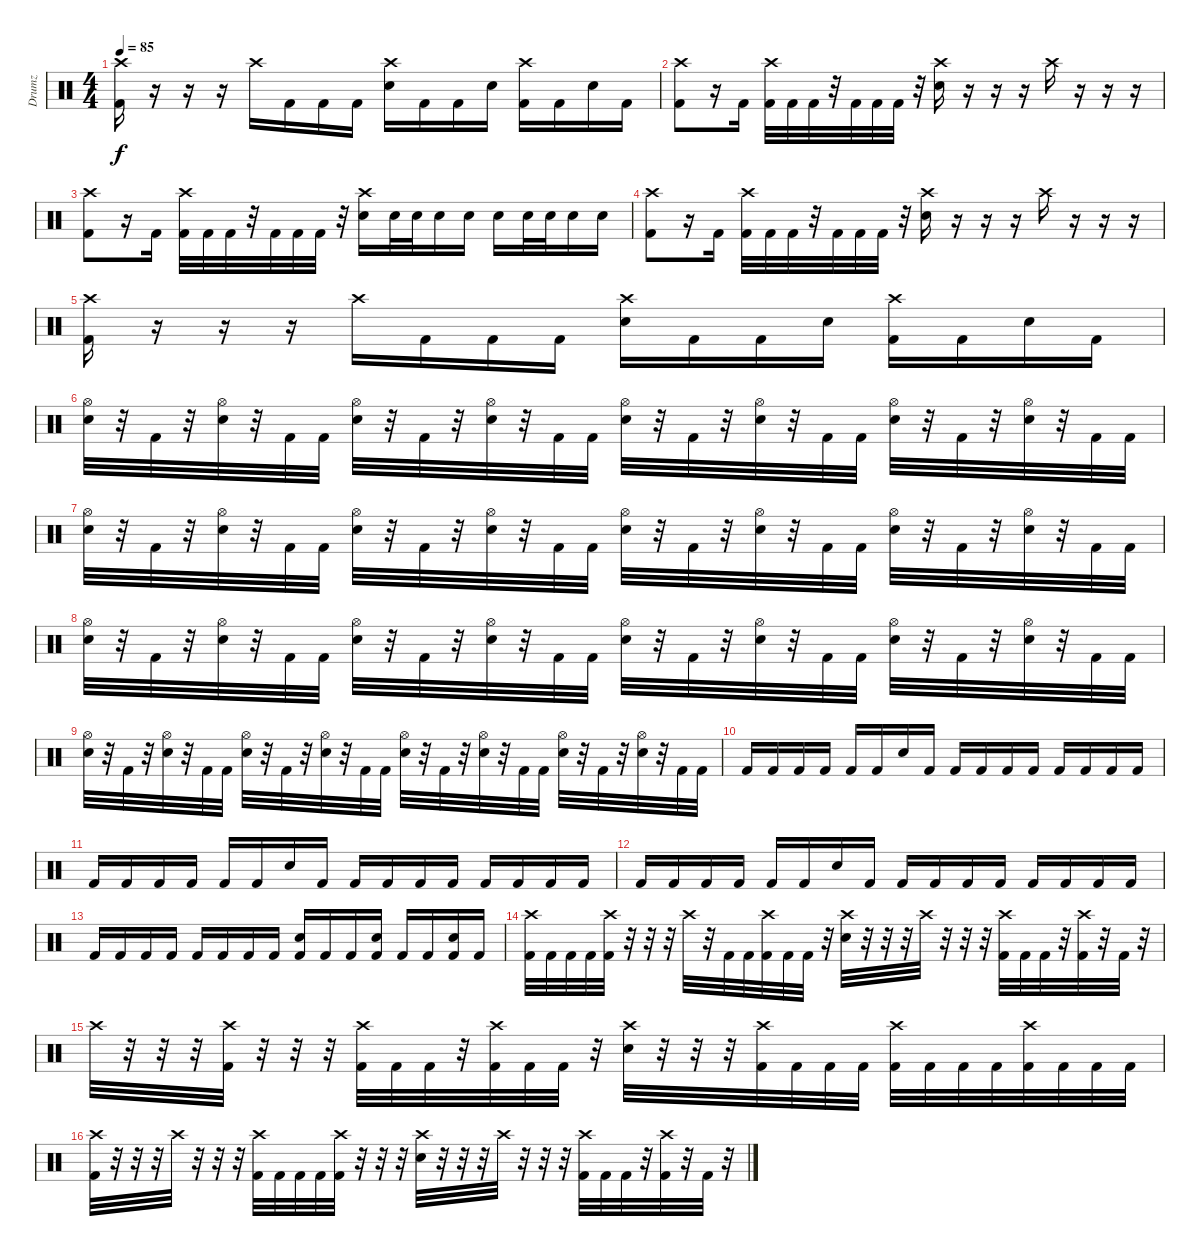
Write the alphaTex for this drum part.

\track ("Drumz" "Drumz") {instrument percussion}
\staff {score}
\articulation defaults
\ts (4 4)
\tempo 85
\clef neutral
\ks c
("Crash high (hit)" "Kick (hit) 2").16{dy f} r.16 r.16 r.16 "Crash high (hit)".16 "Kick (hit) 2".16 "Kick (hit) 2".16 "Kick (hit) 2".16 ("Crash high (hit)" "Snare (hit) 2").16 "Kick (hit) 2".16 "Kick (hit) 2".16 "Snare (hit) 2".16 ("Crash high (hit)" "Kick (hit) 2").16 "Kick (hit) 2".16 "Snare (hit) 2".16 "Kick (hit) 2".16 |
("Crash high (hit)" "Kick (hit) 2").8 r.16 "Kick (hit) 2".16 ("Crash high (hit)" "Kick (hit) 2").32 "Kick (hit) 2".32 "Kick (hit) 2".32 r.32 "Kick (hit) 2".32 "Kick (hit) 2".32 "Kick (hit) 2".32 r.32 ("Crash high (hit)" "Snare (hit) 2").16 r.16 r.16 r.16 "Crash high (hit)".16 r.16 r.16 r.16 |
("Crash high (hit)" "Kick (hit) 2").8 r.16 "Kick (hit) 2".16 ("Crash high (hit)" "Kick (hit) 2").32 "Kick (hit) 2".32 "Kick (hit) 2".32 r.32 "Kick (hit) 2".32 "Kick (hit) 2".32 "Kick (hit) 2".32 r.32 ("Crash high (hit)" "Snare (hit) 2").16 "Snare (hit) 2".32 "Snare (hit) 2".32 "Snare (hit) 2".16 "Snare (hit) 2".16 "Snare (hit) 2".16 "Snare (hit) 2".32 "Snare (hit) 2".32 "Snare (hit) 2".16 "Snare (hit) 2".16 |
("Crash high (hit)" "Kick (hit) 2").8 r.16 "Kick (hit) 2".16 ("Crash high (hit)" "Kick (hit) 2").32 "Kick (hit) 2".32 "Kick (hit) 2".32 r.32 "Kick (hit) 2".32 "Kick (hit) 2".32 "Kick (hit) 2".32 r.32 ("Crash high (hit)" "Snare (hit) 2").16 r.16 r.16 r.16 "Crash high (hit)".16 r.16 r.16 r.16 |
("Crash high (hit)" "Kick (hit) 2").16 r.16 r.16 r.16 "Crash high (hit)".16 "Kick (hit) 2".16 "Kick (hit) 2".16 "Kick (hit) 2".16 ("Crash high (hit)" "Snare (hit) 2").16 "Kick (hit) 2".16 "Kick (hit) 2".16 "Snare (hit) 2".16 ("Crash high (hit)" "Kick (hit) 2").16 "Kick (hit) 2".16 "Snare (hit) 2".16 "Kick (hit) 2".16 |
("Hi-Hat (open)" "Snare (hit) 2").32 r.32 "Kick (hit) 2".32 r.32 ("Hi-Hat (open)" "Snare (hit) 2").32 r.32 "Kick (hit) 2".32 "Kick (hit) 2".32 ("Hi-Hat (open)" "Snare (hit) 2").32 r.32 "Kick (hit) 2".32 r.32 ("Hi-Hat (open)" "Snare (hit) 2").32 r.32 "Kick (hit) 2".32 "Kick (hit) 2".32 ("Hi-Hat (open)" "Snare (hit) 2").32 r.32 "Kick (hit) 2".32 r.32 ("Hi-Hat (open)" "Snare (hit) 2").32 r.32 "Kick (hit) 2".32 "Kick (hit) 2".32 ("Hi-Hat (open)" "Snare (hit) 2").32 r.32 "Kick (hit) 2".32 r.32 ("Hi-Hat (open)" "Snare (hit) 2").32 r.32 "Kick (hit) 2".32 "Kick (hit) 2".32 |
("Hi-Hat (open)" "Snare (hit) 2").32 r.32 "Kick (hit) 2".32 r.32 ("Hi-Hat (open)" "Snare (hit) 2").32 r.32 "Kick (hit) 2".32 "Kick (hit) 2".32 ("Hi-Hat (open)" "Snare (hit) 2").32 r.32 "Kick (hit) 2".32 r.32 ("Hi-Hat (open)" "Snare (hit) 2").32 r.32 "Kick (hit) 2".32 "Kick (hit) 2".32 ("Hi-Hat (open)" "Snare (hit) 2").32 r.32 "Kick (hit) 2".32 r.32 ("Hi-Hat (open)" "Snare (hit) 2").32 r.32 "Kick (hit) 2".32 "Kick (hit) 2".32 ("Hi-Hat (open)" "Snare (hit) 2").32 r.32 "Kick (hit) 2".32 r.32 ("Hi-Hat (open)" "Snare (hit) 2").32 r.32 "Kick (hit) 2".32 "Kick (hit) 2".32 |
("Hi-Hat (open)" "Snare (hit) 2").32 r.32 "Kick (hit) 2".32 r.32 ("Hi-Hat (open)" "Snare (hit) 2").32 r.32 "Kick (hit) 2".32 "Kick (hit) 2".32 ("Hi-Hat (open)" "Snare (hit) 2").32 r.32 "Kick (hit) 2".32 r.32 ("Hi-Hat (open)" "Snare (hit) 2").32 r.32 "Kick (hit) 2".32 "Kick (hit) 2".32 ("Hi-Hat (open)" "Snare (hit) 2").32 r.32 "Kick (hit) 2".32 r.32 ("Hi-Hat (open)" "Snare (hit) 2").32 r.32 "Kick (hit) 2".32 "Kick (hit) 2".32 ("Hi-Hat (open)" "Snare (hit) 2").32 r.32 "Kick (hit) 2".32 r.32 ("Hi-Hat (open)" "Snare (hit) 2").32 r.32 "Kick (hit) 2".32 "Kick (hit) 2".32 |
("Hi-Hat (open)" "Snare (hit) 2").32 r.32 "Kick (hit) 2".32 r.32 ("Hi-Hat (open)" "Snare (hit) 2").32 r.32 "Kick (hit) 2".32 "Kick (hit) 2".32 ("Hi-Hat (open)" "Snare (hit) 2").32 r.32 "Kick (hit) 2".32 r.32 ("Hi-Hat (open)" "Snare (hit) 2").32 r.32 "Kick (hit) 2".32 "Kick (hit) 2".32 ("Hi-Hat (open)" "Snare (hit) 2").32 r.32 "Kick (hit) 2".32 r.32 ("Hi-Hat (open)" "Snare (hit) 2").32 r.32 "Kick (hit) 2".32 "Kick (hit) 2".32 ("Hi-Hat (open)" "Snare (hit) 2").32 r.32 "Kick (hit) 2".32 r.32 ("Hi-Hat (open)" "Snare (hit) 2").32 r.32 "Kick (hit) 2".32 "Kick (hit) 2".32 |
"Kick (hit) 2".16 "Kick (hit) 2".16 "Kick (hit) 2".16 "Kick (hit) 2".16 "Kick (hit) 2".16 "Kick (hit) 2".16 "Snare (hit) 2".16 "Kick (hit) 2".16 "Kick (hit) 2".16 "Kick (hit) 2".16 "Kick (hit) 2".16 "Kick (hit) 2".16 "Kick (hit) 2".16 "Kick (hit) 2".16 "Kick (hit) 2".16 "Kick (hit) 2".16 |
"Kick (hit) 2".16 "Kick (hit) 2".16 "Kick (hit) 2".16 "Kick (hit) 2".16 "Kick (hit) 2".16 "Kick (hit) 2".16 "Snare (hit) 2".16 "Kick (hit) 2".16 "Kick (hit) 2".16 "Kick (hit) 2".16 "Kick (hit) 2".16 "Kick (hit) 2".16 "Kick (hit) 2".16 "Kick (hit) 2".16 "Kick (hit) 2".16 "Kick (hit) 2".16 |
"Kick (hit) 2".16 "Kick (hit) 2".16 "Kick (hit) 2".16 "Kick (hit) 2".16 "Kick (hit) 2".16 "Kick (hit) 2".16 "Snare (hit) 2".16 "Kick (hit) 2".16 "Kick (hit) 2".16 "Kick (hit) 2".16 "Kick (hit) 2".16 "Kick (hit) 2".16 "Kick (hit) 2".16 "Kick (hit) 2".16 "Kick (hit) 2".16 "Kick (hit) 2".16 |
"Kick (hit) 2".16 "Kick (hit) 2".16 "Kick (hit) 2".16 "Kick (hit) 2".16 "Kick (hit) 2".16 "Kick (hit) 2".16 "Kick (hit) 2".16 "Kick (hit) 2".16 ("Snare (hit) 2" "Kick (hit) 2").16 "Kick (hit) 2".16 "Kick (hit) 2".16 ("Snare (hit) 2" "Kick (hit) 2").16 "Kick (hit) 2".16 "Kick (hit) 2".16 ("Snare (hit) 2" "Kick (hit) 2").16 "Kick (hit) 2".16 |
("Crash high (hit)" "Kick (hit) 2").32 "Kick (hit) 2".32 "Kick (hit) 2".32 "Kick (hit) 2".32 ("Crash high (hit)" "Kick (hit) 2").32 r.32 r.32 r.32 "Crash high (hit)".32 r.32 "Kick (hit) 2".32 "Kick (hit) 2".32 ("Crash high (hit)" "Kick (hit) 2").32 "Kick (hit) 2".32 "Kick (hit) 2".32 r.32 ("Crash high (hit)" "Snare (hit) 2").32 r.32 r.32 r.32 "Crash high (hit)".32 r.32 r.32 r.32 ("Crash high (hit)" "Kick (hit) 2").32 "Kick (hit) 2".32 "Kick (hit) 2".32 r.32 ("Crash high (hit)" "Kick (hit) 2").32 r.32 "Kick (hit) 2".32 r.32 |
"Crash high (hit)".32 r.32 r.32 r.32 ("Crash high (hit)" "Kick (hit) 2").32 r.32 r.32 r.32 ("Crash high (hit)" "Kick (hit) 2").32 "Kick (hit) 2".32 "Kick (hit) 2".32 r.32 ("Crash high (hit)" "Kick (hit) 2").32 "Kick (hit) 2".32 "Kick (hit) 2".32 r.32 ("Crash high (hit)" "Snare (hit) 2").32 r.32 r.32 r.32 ("Crash high (hit)" "Kick (hit) 2").32 "Kick (hit) 2".32 "Kick (hit) 2".32 "Kick (hit) 2".32 ("Crash high (hit)" "Kick (hit) 2").32 "Kick (hit) 2".32 "Kick (hit) 2".32 "Kick (hit) 2".32 ("Crash high (hit)" "Kick (hit) 2").32 "Kick (hit) 2".32 "Kick (hit) 2".32 "Kick (hit) 2".32 |
("Crash high (hit)" "Kick (hit) 2").32 r.32 r.32 r.32 "Crash high (hit)".32 r.32 r.32 r.32 ("Crash high (hit)" "Kick (hit) 2").32 "Kick (hit) 2".32 "Kick (hit) 2".32 "Kick (hit) 2".32 ("Crash high (hit)" "Kick (hit) 2").32 r.32 r.32 r.32 ("Crash high (hit)" "Snare (hit) 2").32 r.32 r.32 r.32 "Crash high (hit)".32 r.32 r.32 r.32 ("Crash high (hit)" "Kick (hit) 2").32 "Kick (hit) 2".32 "Kick (hit) 2".32 r.32 ("Crash high (hit)" "Kick (hit) 2").32 r.32 "Kick (hit) 2".32 r.32
